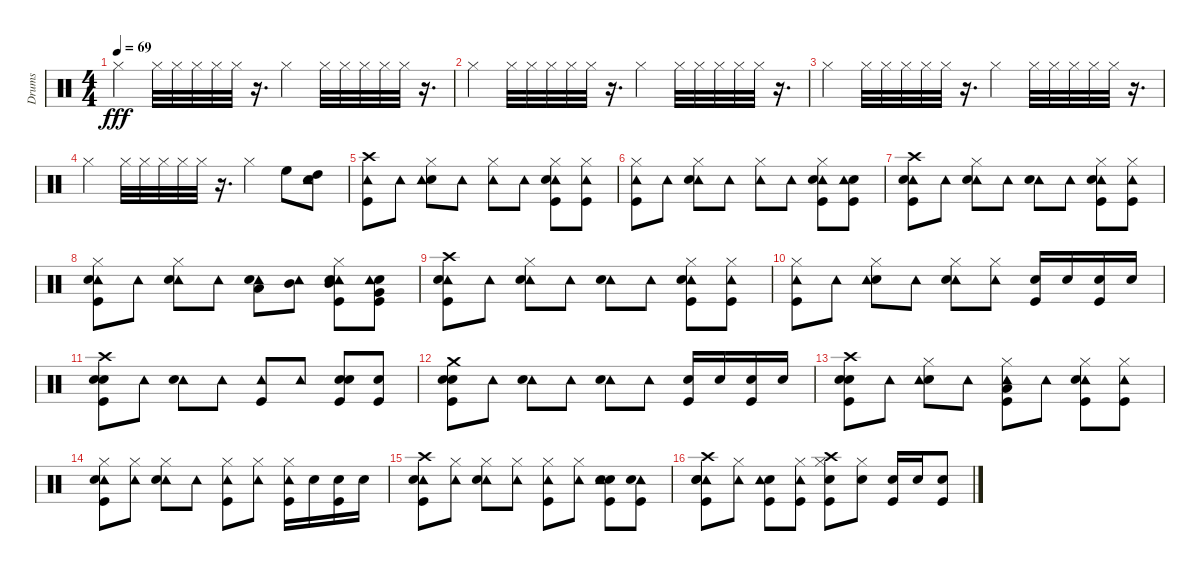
\track ("Drums" "Drums") {instrument percussion}
\staff {score}
\articulation defaults
\ts (4 4)
\tempo 69
\clef neutral
\ks c "Hi-Hat (closed)".4{dy fff} "Hi-Hat (closed)".32 "Hi-Hat (closed)".32 "Hi-Hat (closed)".32 "Hi-Hat (closed)".32 "Hi-Hat (closed)".32
r.16{d} "Hi-Hat (closed)".4 "Hi-Hat (closed)".32 "Hi-Hat (closed)".32 "Hi-Hat (closed)".32 "Hi-Hat (closed)".32 "Hi-Hat (closed)".32 r.16{d} |
"Hi-Hat (closed)".4 "Hi-Hat (closed)".32 "Hi-Hat (closed)".32 "Hi-Hat (closed)".32 "Hi-Hat (closed)".32 "Hi-Hat (closed)".32 r.16{d} "Hi-Hat (closed)".4 "Hi-Hat (closed)".32 "Hi-Hat (closed)".32 "Hi-Hat (closed)".32 "Hi-Hat (closed)".32 "Hi-Hat (closed)".32 r.16{d} |
"Hi-Hat (closed)".4 "Hi-Hat (closed)".32 "Hi-Hat (closed)".32 "Hi-Hat (closed)".32 "Hi-Hat (closed)".32 "Hi-Hat (closed)".32 r.16{d} "Hi-Hat (closed)".4 "Hi-Hat (closed)".32 "Hi-Hat (closed)".32 "Hi-Hat (closed)".32 "Hi-Hat (closed)".32 "Hi-Hat (closed)".32 r.16{d} |
"Hi-Hat (closed)".4 "Hi-Hat (closed)".32 "Hi-Hat (closed)".32 "Hi-Hat (closed)".32 "Hi-Hat (closed)".32 "Hi-Hat (closed)".32 r.16{d} "Hi-Hat (closed)".4 "High Floor Tom (hit)".8 ("Tambourine (hit)" "High Tom (hit)" "Snare (hit) 2").8 |
("Tambourine (hit)" "Kick (hit)" "Crash high (hit)").8 "Tambourine (hit)".8 ("Snare (hit) 2" "Hi-Hat (closed)" "Tambourine (hit)").8 "Tambourine (hit)".8 ("Hi-Hat (closed)" "Tambourine (hit)").8 "Tambourine (hit)".8 ("Hi-Hat (closed)" "Tambourine (hit)" "Kick (hit)" "Snare (hit) 2").8 ("Hi-Hat (closed)" "Tambourine (hit)" "Kick (hit)").8 |
("Hi-Hat (closed)" "Tambourine (hit)" "Kick (hit)").8 "Tambourine (hit)".8 ("Hi-Hat (closed)" "Tambourine (hit)" "Snare (hit) 2").8 "Tambourine (hit)".8 ("Hi-Hat (closed)" "Tambourine (hit)").8 "Tambourine (hit)".8 ("Hi-Hat (closed)" "Tambourine (hit)" "Kick (hit)" "Snare (hit) 2").8 ("Snare (hit) 2" "Tambourine (hit)" "Kick (hit)").8 |
("Tambourine (hit)" "Kick (hit)" "Crash high (hit)" "Snare (hit) 2").8 "Tambourine (hit)".8 ("Hi-Hat (closed)" "Tambourine (hit)" "Snare (hit) 2").8 "Tambourine (hit)".8 ("Tambourine (hit)" "Snare (hit) 2").8 "Tambourine (hit)".8 ("Hi-Hat (closed)" "Tambourine (hit)" "Kick (hit)" "Snare (hit) 2").8 ("Hi-Hat (closed)" "Tambourine (hit)" "Kick (hit)").8 |
("Hi-Hat (closed)" "Tambourine (hit)" "Kick (hit)" "Snare (hit) 2").8 "Tambourine (hit)".8 ("Hi-Hat (closed)" "Tambourine (hit)" "Snare (hit) 2").8 "Tambourine (hit)".8 ("Low Tom (hit)" "Tambourine (hit)" "Snare (hit) 2").8 ("Mid Tom (hit)" "Tambourine (hit)").8 ("Hi-Hat (closed)" "Mid Tom (hit)" "Tambourine (hit)" "Kick (hit)" "Snare (hit) 2").8 ("Very Low Tom (hit)" "Snare (hit) 2" "Tambourine (hit)" "Kick (hit)").8 |
("Tambourine (hit)" "Kick (hit)" "Crash high (hit)" "Snare (hit) 2").8 "Tambourine (hit)".8 ("Hi-Hat (closed)" "Tambourine (hit)" "Snare (hit) 2").8 "Tambourine (hit)".8 ("Tambourine (hit)" "Snare (hit) 2").8 "Tambourine (hit)".8 ("Hi-Hat (closed)" "Tambourine (hit)" "Kick (hit)" "Snare (hit) 2").8 ("Hi-Hat (closed)" "Tambourine (hit)" "Kick (hit)").8 |
("Hi-Hat (closed)" "Tambourine (hit)" "Kick (hit)").8 "Tambourine (hit)".8 ("Electric Snare (hit)" "Hi-Hat (closed)" "Tambourine (hit)").8 "Tambourine (hit)".8 ("Hi-Hat (closed)" "Tambourine (hit)" "Snare (hit) 2").8 ("Hi-Hat (closed)" "Tambourine (hit)").8 ("Kick (hit)" "Electric Snare (hit)").16 "Snare (hit) 2".16 ("Kick (hit)" "Electric Snare (hit)").16 "Snare (hit) 2".16 |
("Kick (hit)" "Crash high (hit)" "Electric Snare (hit)" "Snare (hit) 2").8 "Tambourine (hit)".8 ("Tambourine (hit)" "Snare (hit) 2").8 "Tambourine (hit)".8 ("Kick (hit)" "Tambourine (hit)").8 "Tambourine (hit)".8 ("Kick (hit)" "Electric Snare (hit)" "Snare (hit) 2").8 ("Kick (hit)" "Electric Snare (hit)").8 |
("Kick (hit)" "Crash medium (hit)" "Electric Snare (hit)" "Snare (hit) 2").8 "Tambourine (hit)".8 ("Tambourine (hit)" "Snare (hit) 2").8 "Tambourine (hit)".8 ("Tambourine (hit)" "Snare (hit) 2").8 "Tambourine (hit)".8 ("Kick (hit)" "Electric Snare (hit)").16 "Snare (hit) 2".16 ("Kick (hit)" "Electric Snare (hit)").16 "Snare (hit) 2".16 |
("Crash high (hit)" "Kick (hit)" "Electric Snare (hit)" "Snare (hit) 2").8 "Tambourine (hit)".8 ("Hi-Hat (closed)" "Snare (hit) 2" "Tambourine (hit)").8 "Tambourine (hit)".8 ("Hi-Hat (closed)" "Kick (hit)" "Low Tom (hit)" "Tambourine (hit)").8 "Tambourine (hit)".8 ("Hi-Hat (closed)" "Tambourine (hit)" "Kick (hit)" "Snare (hit) 2").8 ("Hi-Hat (closed)" "Tambourine (hit)" "Kick (hit)").8 |
("Hi-Hat (closed)" "Tambourine (hit)" "Kick (hit)" "Snare (hit) 2").8 ("Hi-Hat (closed)" "Tambourine (hit)").8 ("Hi-Hat (closed)" "Tambourine (hit)" "Snare (hit) 2").8 "Tambourine (hit)".8 ("Hi-Hat (closed)" "Kick (hit)" "Tambourine (hit)").8 ("Hi-Hat (closed)" "Tambourine (hit)").8 ("Hi-Hat (closed)" "Kick (hit)" "Tambourine (hit)").16 "Snare (hit) 2".16 ("Kick (hit)" "Snare (hit) 2").16 "Snare (hit) 2".16 |
("Tambourine (hit)" "Kick (hit)" "Crash high (hit)" "Snare (hit) 2").8 ("Hi-Hat (closed)" "Tambourine (hit)").8 ("Hi-Hat (closed)" "Tambourine (hit)" "Snare (hit) 2").8 ("Hi-Hat (closed)" "Tambourine (hit)").8 ("Kick (hit)" "Hi-Hat (closed)" "Tambourine (hit)").8 ("Hi-Hat (closed)" "Tambourine (hit)").8 ("Electric Snare (hit)" "Snare (hit) 2" "Tambourine (hit)" "Kick (hit)").8 ("Tambourine (hit)" "Kick (hit)" "Electric Snare (hit)").8 |
("Kick (hit)" "Tambourine (hit)" "Crash high (hit)" "Electric Snare (hit)" "Snare (hit) 2").8 ("Hi-Hat (closed)" "Tambourine (hit)").8 ("Kick (hit)" "Electric Snare (hit)" "Tambourine (hit)").8 ("Hi-Hat (closed)" "Kick (hit)" "Tambourine (hit)").8 ("Hi-Hat (closed)" "Kick (hit)" "Crash high (hit)" "Electric Snare (hit)").8 ("Hi-Hat (closed)" "Electric Snare (hit)").8 ("Kick (hit)" "Electric Snare (hit)").16 "Snare (hit) 2".16 ("Kick (hit)" "Electric Snare (hit)").8
